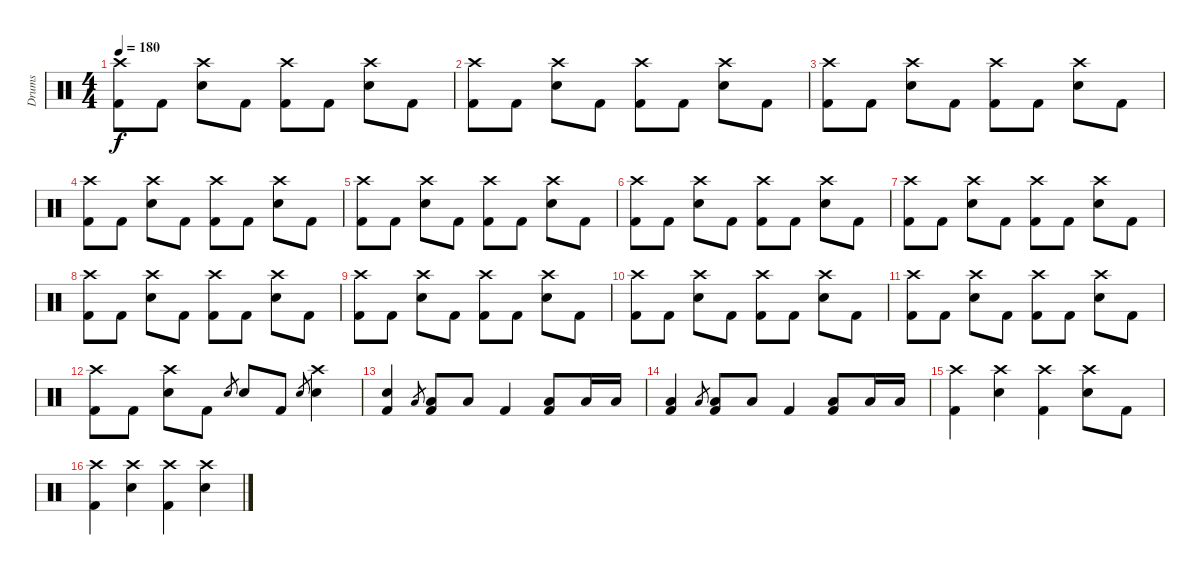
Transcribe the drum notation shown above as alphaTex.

\track ("Drums" "Drums") {instrument percussion}
\staff {score}
\articulation defaults
\ts (4 4)
\tempo 180
\clef neutral
\ks c
("Crash high (hit)" "Kick (hit) 2").8{dy f} "Kick (hit) 2".8 ("Crash high (hit)" "Snare (hit) 2").8 "Kick (hit) 2".8 ("Crash high (hit)" "Kick (hit) 2").8 "Kick (hit) 2".8 ("Crash high (hit)" "Snare (hit) 2").8 "Kick (hit) 2".8 |
("Crash high (hit)" "Kick (hit) 2").8 "Kick (hit) 2".8 ("Crash high (hit)" "Snare (hit) 2").8 "Kick (hit) 2".8 ("Crash high (hit)" "Kick (hit) 2").8 "Kick (hit) 2".8 ("Crash high (hit)" "Snare (hit) 2").8 "Kick (hit) 2".8 |
("Crash high (hit)" "Kick (hit) 2").8 "Kick (hit) 2".8 ("Crash high (hit)" "Snare (hit) 2").8 "Kick (hit) 2".8 ("Crash high (hit)" "Kick (hit) 2").8 "Kick (hit) 2".8 ("Crash high (hit)" "Snare (hit) 2").8 "Kick (hit) 2".8 |
("Crash high (hit)" "Kick (hit) 2").8 "Kick (hit) 2".8 ("Crash high (hit)" "Snare (hit) 2").8 "Kick (hit) 2".8 ("Crash high (hit)" "Kick (hit) 2").8 "Kick (hit) 2".8 ("Crash high (hit)" "Snare (hit) 2").8 "Kick (hit) 2".8 |
("Crash high (hit)" "Kick (hit) 2").8 "Kick (hit) 2".8 ("Crash high (hit)" "Snare (hit) 2").8 "Kick (hit) 2".8 ("Crash high (hit)" "Kick (hit) 2").8 "Kick (hit) 2".8 ("Crash high (hit)" "Snare (hit) 2").8 "Kick (hit) 2".8 |
("Crash high (hit)" "Kick (hit) 2").8 "Kick (hit) 2".8 ("Crash high (hit)" "Snare (hit) 2").8 "Kick (hit) 2".8 ("Crash high (hit)" "Kick (hit) 2").8 "Kick (hit) 2".8 ("Crash high (hit)" "Snare (hit) 2").8 "Kick (hit) 2".8 |
("Crash high (hit)" "Kick (hit) 2").8 "Kick (hit) 2".8 ("Crash high (hit)" "Snare (hit) 2").8 "Kick (hit) 2".8 ("Crash high (hit)" "Kick (hit) 2").8 "Kick (hit) 2".8 ("Crash high (hit)" "Snare (hit) 2").8 "Kick (hit) 2".8 |
("Crash high (hit)" "Kick (hit) 2").8 "Kick (hit) 2".8 ("Crash high (hit)" "Snare (hit) 2").8 "Kick (hit) 2".8 ("Crash high (hit)" "Kick (hit) 2").8 "Kick (hit) 2".8 ("Crash high (hit)" "Snare (hit) 2").8 "Kick (hit) 2".8 |
("Crash high (hit)" "Kick (hit) 2").8 "Kick (hit) 2".8 ("Crash high (hit)" "Snare (hit) 2").8 "Kick (hit) 2".8 ("Crash high (hit)" "Kick (hit) 2").8 "Kick (hit) 2".8 ("Crash high (hit)" "Snare (hit) 2").8 "Kick (hit) 2".8 |
("Crash high (hit)" "Kick (hit) 2").8 "Kick (hit) 2".8 ("Crash high (hit)" "Snare (hit) 2").8 "Kick (hit) 2".8 ("Crash high (hit)" "Kick (hit) 2").8 "Kick (hit) 2".8 ("Crash high (hit)" "Snare (hit) 2").8 "Kick (hit) 2".8 |
("Crash high (hit)" "Kick (hit) 2").8 "Kick (hit) 2".8 ("Crash high (hit)" "Snare (hit) 2").8 "Kick (hit) 2".8 ("Crash high (hit)" "Kick (hit) 2").8 "Kick (hit) 2".8 ("Crash high (hit)" "Snare (hit) 2").8 "Kick (hit) 2".8 |
("Crash high (hit)" "Kick (hit) 2").8 "Kick (hit) 2".8 ("Crash high (hit)" "Snare (hit) 2").8 "Kick (hit) 2".8 "Snare (hit) 2".8{gr} "Snare (hit) 2".8 "Kick (hit) 2".8 "Snare (hit) 2".8{gr} ("Crash high (hit)" "Snare (hit) 2").4 |
("Snare (hit) 2" "Kick (hit) 2").4 "Low Tom (hit)".8{gr} ("Low Tom (hit)" "Kick (hit) 2").8 "Low Tom (hit)".8 "Kick (hit) 2".4 ("Low Tom (hit)" "Kick (hit) 2").8 "Low Tom (hit)".16 "Low Tom (hit)".16 |
("Low Tom (hit)" "Kick (hit) 2").4 "Low Tom (hit)".8{gr} ("Low Tom (hit)" "Kick (hit) 2").8 "Low Tom (hit)".8 "Kick (hit) 2".4 ("Low Tom (hit)" "Kick (hit) 2").8 "Low Tom (hit)".16 "Low Tom (hit)".16 |
("Crash high (hit)" "Kick (hit) 2").4 ("Crash high (hit)" "Snare (hit) 2").4 ("Crash high (hit)" "Kick (hit) 2").4 ("Crash high (hit)" "Snare (hit) 2").8 "Kick (hit) 2".8 |
("Crash high (hit)" "Kick (hit) 2").4 ("Crash high (hit)" "Snare (hit) 2").4 ("Crash high (hit)" "Kick (hit) 2").4 ("Crash high (hit)" "Snare (hit) 2").4
